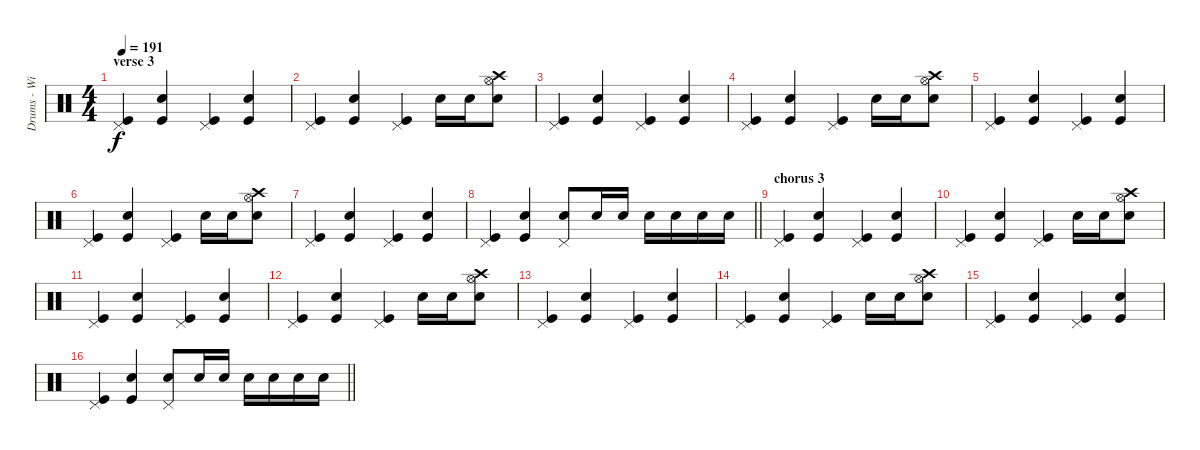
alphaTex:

\track ("Drums - Willie Buchan" "Drums - Wi") {instrument percussion}
\staff {score}
\articulation defaults
\ts (4 4)
\section ("" "verse 3")
\tempo 191
\clef neutral
\ks c
("Kick (hit)" "Pedal Hi-Hat (hit)").4{dy f} ("Kick (hit)" "Snare (hit) 2").4 ("Kick (hit)" "Pedal Hi-Hat (hit)").4 ("Kick (hit)" "Snare (hit) 2").4 |
("Kick (hit)" "Pedal Hi-Hat (hit)").4 ("Kick (hit)" "Snare (hit) 2").4 ("Kick (hit)" "Pedal Hi-Hat (hit)").4 "Snare (hit) 2".16 "Snare (hit) 2".16 ("Snare (hit) 2" "Hi-Hat (open)" "Crash high (hit)").8 |
("Kick (hit)" "Pedal Hi-Hat (hit)").4 ("Kick (hit)" "Snare (hit) 2").4 ("Kick (hit)" "Pedal Hi-Hat (hit)").4 ("Kick (hit)" "Snare (hit) 2").4 |
("Kick (hit)" "Pedal Hi-Hat (hit)").4 ("Kick (hit)" "Snare (hit) 2").4 ("Kick (hit)" "Pedal Hi-Hat (hit)").4 "Snare (hit) 2".16 "Snare (hit) 2".16 ("Snare (hit) 2" "Hi-Hat (open)" "Crash high (hit)").8 |
("Kick (hit)" "Pedal Hi-Hat (hit)").4 ("Kick (hit)" "Snare (hit) 2").4 ("Kick (hit)" "Pedal Hi-Hat (hit)").4 ("Kick (hit)" "Snare (hit) 2").4 |
("Kick (hit)" "Pedal Hi-Hat (hit)").4 ("Kick (hit)" "Snare (hit) 2").4 ("Kick (hit)" "Pedal Hi-Hat (hit)").4 "Snare (hit) 2".16 "Snare (hit) 2".16 ("Snare (hit) 2" "Hi-Hat (open)" "Crash high (hit)").8 |
("Kick (hit)" "Pedal Hi-Hat (hit)").4 ("Kick (hit)" "Snare (hit) 2").4 ("Kick (hit)" "Pedal Hi-Hat (hit)").4 ("Kick (hit)" "Snare (hit) 2").4 |
\barLineRight lightlight
("Kick (hit)" "Pedal Hi-Hat (hit)").4 ("Kick (hit)" "Snare (hit) 2").4 ("Snare (hit) 2" "Pedal Hi-Hat (hit)").8 "Snare (hit) 2".16 "Snare (hit) 2".16 "Snare (hit) 2".16 "Snare (hit) 2".16 "Snare (hit) 2".16 "Snare (hit) 2".16 |
\section ("" "chorus 3")
("Kick (hit)" "Pedal Hi-Hat (hit)").4 ("Kick (hit)" "Snare (hit) 2").4 ("Kick (hit)" "Pedal Hi-Hat (hit)").4 ("Kick (hit)" "Snare (hit) 2").4 |
("Kick (hit)" "Pedal Hi-Hat (hit)").4 ("Kick (hit)" "Snare (hit) 2").4 ("Kick (hit)" "Pedal Hi-Hat (hit)").4 "Snare (hit) 2".16 "Snare (hit) 2".16 ("Snare (hit) 2" "Hi-Hat (open)" "Crash high (hit)").8 |
("Kick (hit)" "Pedal Hi-Hat (hit)").4 ("Kick (hit)" "Snare (hit) 2").4 ("Kick (hit)" "Pedal Hi-Hat (hit)").4 ("Kick (hit)" "Snare (hit) 2").4 |
("Kick (hit)" "Pedal Hi-Hat (hit)").4 ("Kick (hit)" "Snare (hit) 2").4 ("Kick (hit)" "Pedal Hi-Hat (hit)").4 "Snare (hit) 2".16 "Snare (hit) 2".16 ("Snare (hit) 2" "Hi-Hat (open)" "Crash high (hit)").8 |
("Kick (hit)" "Pedal Hi-Hat (hit)").4 ("Kick (hit)" "Snare (hit) 2").4 ("Kick (hit)" "Pedal Hi-Hat (hit)").4 ("Kick (hit)" "Snare (hit) 2").4 |
("Kick (hit)" "Pedal Hi-Hat (hit)").4 ("Kick (hit)" "Snare (hit) 2").4 ("Kick (hit)" "Pedal Hi-Hat (hit)").4 "Snare (hit) 2".16 "Snare (hit) 2".16 ("Snare (hit) 2" "Hi-Hat (open)" "Crash high (hit)").8 |
("Kick (hit)" "Pedal Hi-Hat (hit)").4 ("Kick (hit)" "Snare (hit) 2").4 ("Kick (hit)" "Pedal Hi-Hat (hit)").4 ("Kick (hit)" "Snare (hit) 2").4 |
\barLineRight lightlight
("Kick (hit)" "Pedal Hi-Hat (hit)").4 ("Kick (hit)" "Snare (hit) 2").4 ("Snare (hit) 2" "Pedal Hi-Hat (hit)").8 "Snare (hit) 2".16 "Snare (hit) 2".16 "Snare (hit) 2".16 "Snare (hit) 2".16 "Snare (hit) 2".16 "Snare (hit) 2".16
